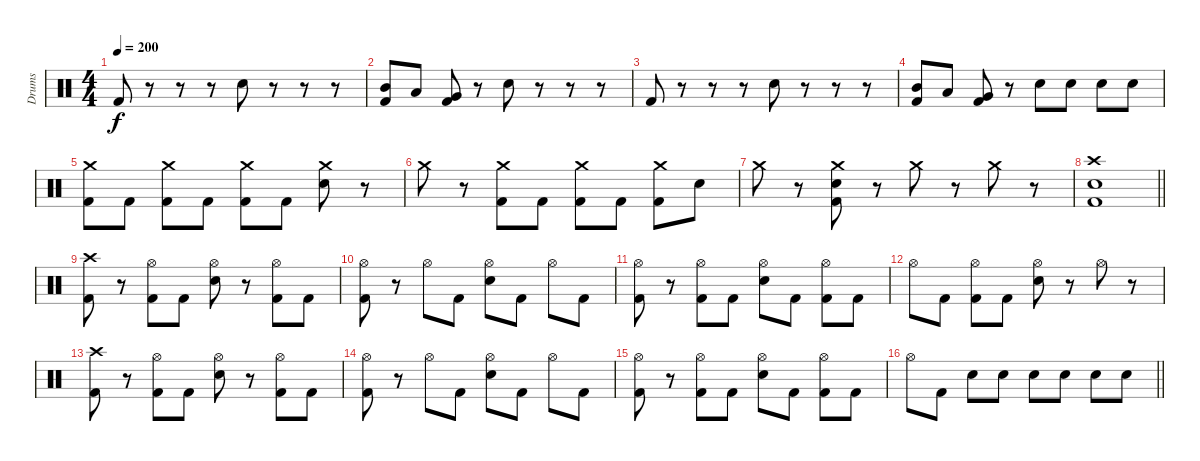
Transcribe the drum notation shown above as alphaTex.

\track ("Drums" "Drums") {instrument percussion}
\staff {score}
\articulation defaults
\ts (4 4)
\tempo 200
\clef neutral
\ks c "Kick (hit) 2".8{dy f}
r.8 r.8 r.8 "Electric Snare (hit)".8 r.8 r.8 r.8 |
("Mid Tom (hit)" "Kick (hit) 2").8 "Low Tom (hit)".8 ("Very Low Tom (hit)" "Kick (hit) 2").8 r.8 "Electric Snare (hit)".8 r.8 r.8 r.8 |
"Kick (hit) 2".8 r.8 r.8 r.8 "Electric Snare (hit)".8 r.8 r.8 r.8 |
("Mid Tom (hit)" "Kick (hit) 2").8 "Low Tom (hit)".8 ("Very Low Tom (hit)" "Kick (hit) 2").8 r.8 "Electric Snare (hit)".8 "Electric Snare (hit)".8 "Electric Snare (hit)".8 "Electric Snare (hit)".8 |
("Crash medium (hit)" "Kick (hit) 2").8 "Kick (hit) 2".8 ("Crash medium (hit)" "Kick (hit) 2").8 "Kick (hit) 2".8 ("Crash medium (hit)" "Kick (hit) 2").8 "Kick (hit) 2".8 ("Crash medium (hit)" "Electric Snare (hit)").8 r.8 |
"Crash medium (hit)".8 r.8 ("Crash medium (hit)" "Kick (hit) 2").8 "Kick (hit) 2".8 ("Crash medium (hit)" "Kick (hit) 2").8 "Kick (hit) 2".8 ("Crash medium (hit)" "Kick (hit) 2").8 "Electric Snare (hit)".8 |
"Crash medium (hit)".8 r.8 ("Crash medium (hit)" "Electric Snare (hit)" "Kick (hit) 2").8 r.8 "Crash medium (hit)".8 r.8 "Crash medium (hit)".8 r.8 |
\barLineRight lightlight
("Crash high (hit)" "Electric Snare (hit)" "Kick (hit) 2").1 |
("Crash high (hit)" "Kick (hit) 2").8 r.8 ("Hi-Hat (open)" "Kick (hit) 2").8 "Kick (hit) 2".8 ("Hi-Hat (open)" "Electric Snare (hit)").8 r.8 ("Hi-Hat (open)" "Kick (hit) 2").8 "Kick (hit) 2".8 |
("Hi-Hat (open)" "Kick (hit) 2").8 r.8 "Hi-Hat (open)".8 "Kick (hit) 2".8 ("Hi-Hat (open)" "Electric Snare (hit)").8 "Kick (hit) 2".8 "Hi-Hat (open)".8 "Kick (hit) 2".8 |
("Hi-Hat (open)" "Kick (hit) 2").8 r.8 ("Hi-Hat (open)" "Kick (hit) 2").8 "Kick (hit) 2".8 ("Hi-Hat (open)" "Electric Snare (hit)").8 "Kick (hit) 2".8 ("Hi-Hat (open)" "Kick (hit) 2").8 "Kick (hit) 2".8 |
"Hi-Hat (open)".8 "Kick (hit) 2".8 ("Hi-Hat (open)" "Kick (hit) 2").8 "Kick (hit) 2".8 ("Hi-Hat (open)" "Electric Snare (hit)").8 r.8 "Hi-Hat (open)".8 r.8 |
("Crash high (hit)" "Kick (hit) 2").8 r.8 ("Hi-Hat (open)" "Kick (hit) 2").8 "Kick (hit) 2".8 ("Hi-Hat (open)" "Electric Snare (hit)").8 r.8 ("Hi-Hat (open)" "Kick (hit) 2").8 "Kick (hit) 2".8 |
("Hi-Hat (open)" "Kick (hit) 2").8 r.8 "Hi-Hat (open)".8 "Kick (hit) 2".8 ("Hi-Hat (open)" "Electric Snare (hit)").8 "Kick (hit) 2".8 "Hi-Hat (open)".8 "Kick (hit) 2".8 |
("Hi-Hat (open)" "Kick (hit) 2").8 r.8 ("Hi-Hat (open)" "Kick (hit) 2").8 "Kick (hit) 2".8 ("Hi-Hat (open)" "Electric Snare (hit)").8 "Kick (hit) 2".8 ("Hi-Hat (open)" "Kick (hit) 2").8 "Kick (hit) 2".8 |
\barLineRight lightlight "Hi-Hat (open)".8 "Kick (hit) 2".8 "Electric Snare (hit)".8 "Electric Snare (hit)".8 "Electric Snare (hit)".8 "Electric Snare (hit)".8 "Electric Snare (hit)".8 "Electric Snare (hit)".8
